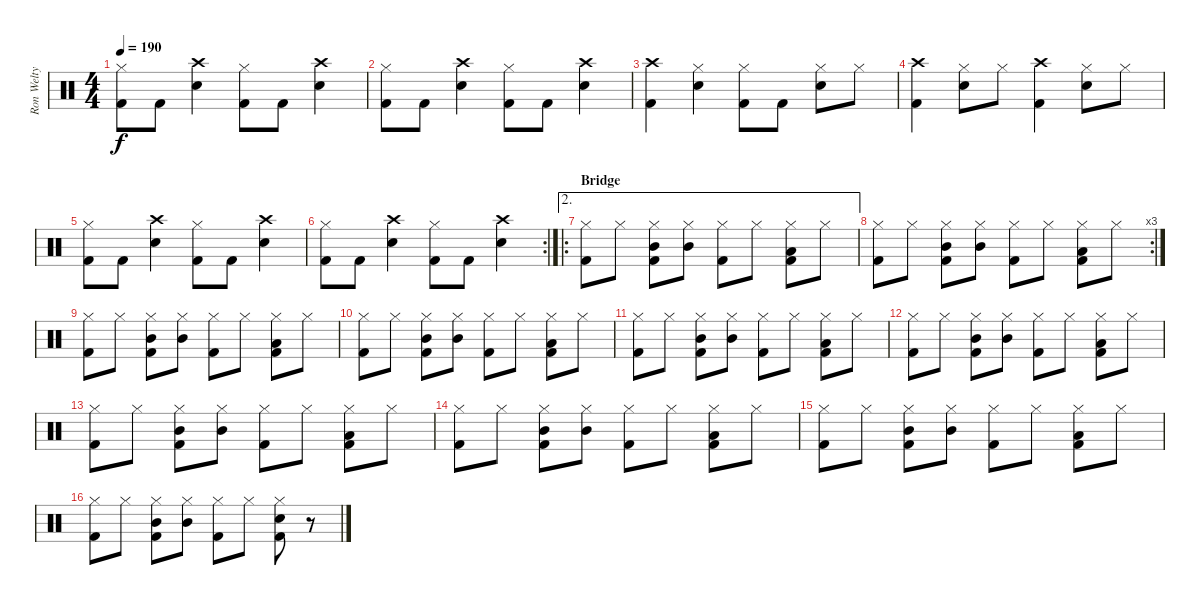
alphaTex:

\track ("Ron Welty" "Ron Welty") {instrument percussion}
\staff {score}
\articulation defaults
\ts (4 4)
\tempo 190
\clef neutral
\ks c
("Hi-Hat (closed)" "Kick (hit) 2").8{dy f} "Kick (hit) 2".8 ("Crash high (hit)" "Electric Snare (hit)").4 ("Hi-Hat (closed)" "Kick (hit) 2").8 "Kick (hit) 2".8 ("Crash high (hit)" "Electric Snare (hit)").4 |
("Hi-Hat (closed)" "Kick (hit) 2").8 "Kick (hit) 2".8 ("Crash high (hit)" "Electric Snare (hit)").4 ("Hi-Hat (closed)" "Kick (hit) 2").8 "Kick (hit) 2".8 ("Crash high (hit)" "Electric Snare (hit)").4 |
("Crash high (hit)" "Kick (hit) 2").4 ("Hi-Hat (closed)" "Electric Snare (hit)").4 ("Hi-Hat (closed)" "Kick (hit) 2").8 "Kick (hit) 2".8 ("Hi-Hat (closed)" "Electric Snare (hit)").8 "Hi-Hat (closed)".8 |
("Crash high (hit)" "Kick (hit) 2").4 ("Hi-Hat (closed)" "Electric Snare (hit)").8 "Hi-Hat (closed)".8 ("Crash high (hit)" "Kick (hit) 2").4 ("Hi-Hat (closed)" "Electric Snare (hit)").8 "Hi-Hat (closed)".8 |
("Hi-Hat (closed)" "Kick (hit) 2").8 "Kick (hit) 2".8 ("Crash high (hit)" "Electric Snare (hit)").4 ("Hi-Hat (closed)" "Kick (hit) 2").8 "Kick (hit) 2".8 ("Crash high (hit)" "Electric Snare (hit)").4 |
\rc 2
("Hi-Hat (closed)" "Kick (hit) 2").8 "Kick (hit) 2".8 ("Crash high (hit)" "Electric Snare (hit)").4 ("Hi-Hat (closed)" "Kick (hit) 2").8 "Kick (hit) 2".8 ("Crash high (hit)" "Electric Snare (hit)").4 |
\ae 2
\ro
\section ("" "Bridge")
("Hi-Hat (closed)" "Kick (hit) 2").8 "Hi-Hat (closed)".8 ("Hi-Hat (closed)" "Mid Tom (hit)" "Kick (hit) 2").8 ("Hi-Hat (closed)" "Mid Tom (hit)").8 ("Hi-Hat (closed)" "Kick (hit) 2").8 "Hi-Hat (closed)".8 ("Hi-Hat (closed)" "Low Tom (hit)" "Kick (hit) 2").8 "Hi-Hat (closed)".8 |
\rc 3
("Hi-Hat (closed)" "Kick (hit) 2").8 "Hi-Hat (closed)".8 ("Hi-Hat (closed)" "Mid Tom (hit)" "Kick (hit) 2").8 ("Hi-Hat (closed)" "Mid Tom (hit)").8 ("Hi-Hat (closed)" "Kick (hit) 2").8 "Hi-Hat (closed)".8 ("Hi-Hat (closed)" "Low Tom (hit)" "Kick (hit) 2").8 "Hi-Hat (closed)".8 |
("Hi-Hat (closed)" "Kick (hit) 2").8 "Hi-Hat (closed)".8 ("Hi-Hat (closed)" "Mid Tom (hit)" "Kick (hit) 2").8 ("Hi-Hat (closed)" "Mid Tom (hit)").8 ("Hi-Hat (closed)" "Kick (hit) 2").8 "Hi-Hat (closed)".8 ("Hi-Hat (closed)" "Low Tom (hit)" "Kick (hit) 2").8 "Hi-Hat (closed)".8 |
("Hi-Hat (closed)" "Kick (hit) 2").8 "Hi-Hat (closed)".8 ("Hi-Hat (closed)" "Mid Tom (hit)" "Kick (hit) 2").8 ("Hi-Hat (closed)" "Mid Tom (hit)").8 ("Hi-Hat (closed)" "Kick (hit) 2").8 "Hi-Hat (closed)".8 ("Hi-Hat (closed)" "Low Tom (hit)" "Kick (hit) 2").8 "Hi-Hat (closed)".8 |
("Hi-Hat (closed)" "Kick (hit) 2").8 "Hi-Hat (closed)".8 ("Hi-Hat (closed)" "Mid Tom (hit)" "Kick (hit) 2").8 ("Hi-Hat (closed)" "Mid Tom (hit)").8 ("Hi-Hat (closed)" "Kick (hit) 2").8 "Hi-Hat (closed)".8 ("Hi-Hat (closed)" "Low Tom (hit)" "Kick (hit) 2").8 "Hi-Hat (closed)".8 |
("Hi-Hat (closed)" "Kick (hit) 2").8 "Hi-Hat (closed)".8 ("Hi-Hat (closed)" "Mid Tom (hit)" "Kick (hit) 2").8 ("Hi-Hat (closed)" "Mid Tom (hit)").8 ("Hi-Hat (closed)" "Kick (hit) 2").8 "Hi-Hat (closed)".8 ("Hi-Hat (closed)" "Low Tom (hit)" "Kick (hit) 2").8 "Hi-Hat (closed)".8 |
("Hi-Hat (closed)" "Kick (hit) 2").8 "Hi-Hat (closed)".8 ("Hi-Hat (closed)" "Mid Tom (hit)" "Kick (hit) 2").8 ("Hi-Hat (closed)" "Mid Tom (hit)").8 ("Hi-Hat (closed)" "Kick (hit) 2").8 "Hi-Hat (closed)".8 ("Hi-Hat (closed)" "Low Tom (hit)" "Kick (hit) 2").8 "Hi-Hat (closed)".8 |
("Hi-Hat (closed)" "Kick (hit) 2").8 "Hi-Hat (closed)".8 ("Hi-Hat (closed)" "Mid Tom (hit)" "Kick (hit) 2").8 ("Hi-Hat (closed)" "Mid Tom (hit)").8 ("Hi-Hat (closed)" "Kick (hit) 2").8 "Hi-Hat (closed)".8 ("Hi-Hat (closed)" "Low Tom (hit)" "Kick (hit) 2").8 "Hi-Hat (closed)".8 |
("Hi-Hat (closed)" "Kick (hit) 2").8 "Hi-Hat (closed)".8 ("Hi-Hat (closed)" "Mid Tom (hit)" "Kick (hit) 2").8 ("Hi-Hat (closed)" "Mid Tom (hit)").8 ("Hi-Hat (closed)" "Kick (hit) 2").8 "Hi-Hat (closed)".8 ("Hi-Hat (closed)" "Low Tom (hit)" "Kick (hit) 2").8 "Hi-Hat (closed)".8 |
("Hi-Hat (closed)" "Kick (hit) 2").8 "Hi-Hat (closed)".8 ("Hi-Hat (closed)" "Mid Tom (hit)" "Kick (hit) 2").8 ("Hi-Hat (closed)" "Mid Tom (hit)").8 ("Hi-Hat (closed)" "Kick (hit) 2").8 "Hi-Hat (closed)".8 ("Hi-Hat (closed)" "Electric Snare (hit)" "Kick (hit) 2").8 r.8
